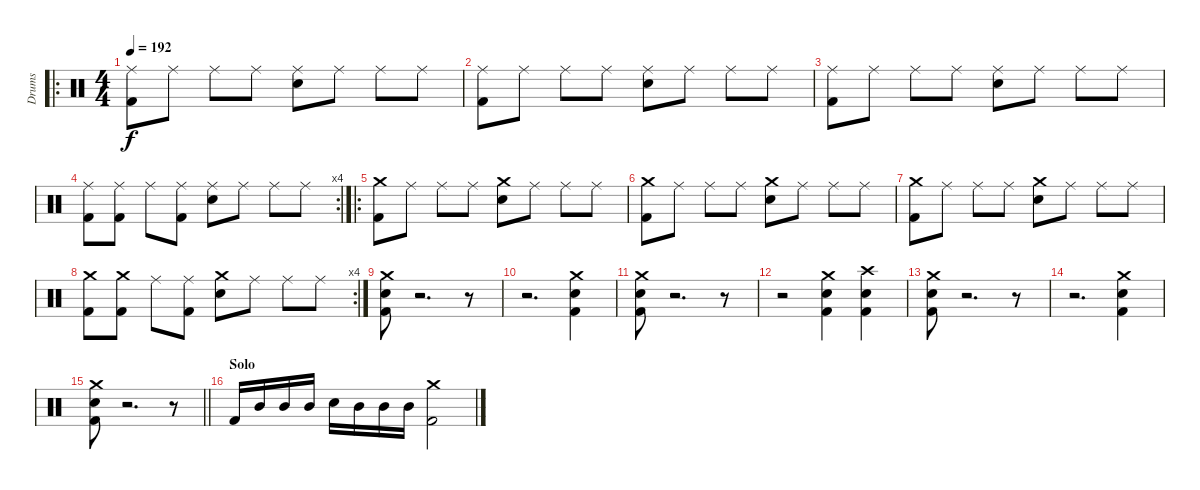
\track ("Drums" "Drums") {instrument percussion}
\staff {score}
\articulation defaults
\ro
\ts (4 4)
\tempo 192
\clef neutral
\ks c
("Ride (middle)" "Kick (hit) 2").8{dy f} "Ride (middle)".8 "Ride (middle)".8 "Ride (middle)".8 ("Ride (middle)" "Electric Snare (hit)").8 "Ride (middle)".8 "Ride (middle)".8 "Ride (middle)".8 |
("Ride (middle)" "Kick (hit) 2").8 "Ride (middle)".8 "Ride (middle)".8 "Ride (middle)".8 ("Ride (middle)" "Electric Snare (hit)").8 "Ride (middle)".8 "Ride (middle)".8 "Ride (middle)".8 |
("Ride (middle)" "Kick (hit) 2").8 "Ride (middle)".8 "Ride (middle)".8 "Ride (middle)".8 ("Ride (middle)" "Electric Snare (hit)").8 "Ride (middle)".8 "Ride (middle)".8 "Ride (middle)".8 |
\rc 4
("Ride (middle)" "Kick (hit) 2").8 ("Ride (middle)" "Kick (hit) 2").8 "Ride (middle)".8 ("Ride (middle)" "Kick (hit) 2").8 ("Ride (middle)" "Electric Snare (hit)").8 "Ride (middle)".8 "Ride (middle)".8 "Ride (middle)".8 |
\ro
("Crash medium (hit)" "Kick (hit) 2").8 "Ride (middle)".8 "Ride (middle)".8 "Ride (middle)".8 ("Crash medium (hit)" "Electric Snare (hit)").8 "Ride (middle)".8 "Ride (middle)".8 "Ride (middle)".8 |
("Crash medium (hit)" "Kick (hit) 2").8 "Ride (middle)".8 "Ride (middle)".8 "Ride (middle)".8 ("Crash medium (hit)" "Electric Snare (hit)").8 "Ride (middle)".8 "Ride (middle)".8 "Ride (middle)".8 |
("Crash medium (hit)" "Kick (hit) 2").8 "Ride (middle)".8 "Ride (middle)".8 "Ride (middle)".8 ("Crash medium (hit)" "Electric Snare (hit)").8 "Ride (middle)".8 "Ride (middle)".8 "Ride (middle)".8 |
\rc 4
("Crash medium (hit)" "Kick (hit) 2").8 ("Crash medium (hit)" "Kick (hit) 2").8 "Ride (middle)".8 ("Ride (middle)" "Kick (hit) 2").8 ("Crash medium (hit)" "Electric Snare (hit)").8 "Ride (middle)".8 "Ride (middle)".8 "Ride (middle)".8 |
("Crash medium (hit)" "Electric Snare (hit)" "Kick (hit) 2").8 r.2{d} r.8 |
r.2{d} ("Crash medium (hit)" "Electric Snare (hit)" "Kick (hit) 2").4 |
("Crash medium (hit)" "Electric Snare (hit)" "Kick (hit) 2").8 r.2{d} r.8 |
r.2 ("Crash medium (hit)" "Electric Snare (hit)" "Kick (hit) 2").4 ("Crash high (hit)" "Electric Snare (hit)" "Kick (hit) 2").4 |
("Crash medium (hit)" "Electric Snare (hit)" "Kick (hit) 2").8 r.2{d} r.8 |
r.2{d} ("Crash medium (hit)" "Electric Snare (hit)" "Kick (hit) 2").4 |
\barLineRight lightlight
("Crash medium (hit)" "Electric Snare (hit)" "Kick (hit) 2").8 r.2{d} r.8 |
\section ("" "Solo ")
"Kick (hit) 2".16 "Mid Tom (hit)".16 "Mid Tom (hit)".16 "Mid Tom (hit)".16 "Snare (hit) 2".16 "Mid Tom (hit)".16 "Mid Tom (hit)".16 "Mid Tom (hit)".16 ("Crash medium (hit)" "Kick (hit) 2").2
